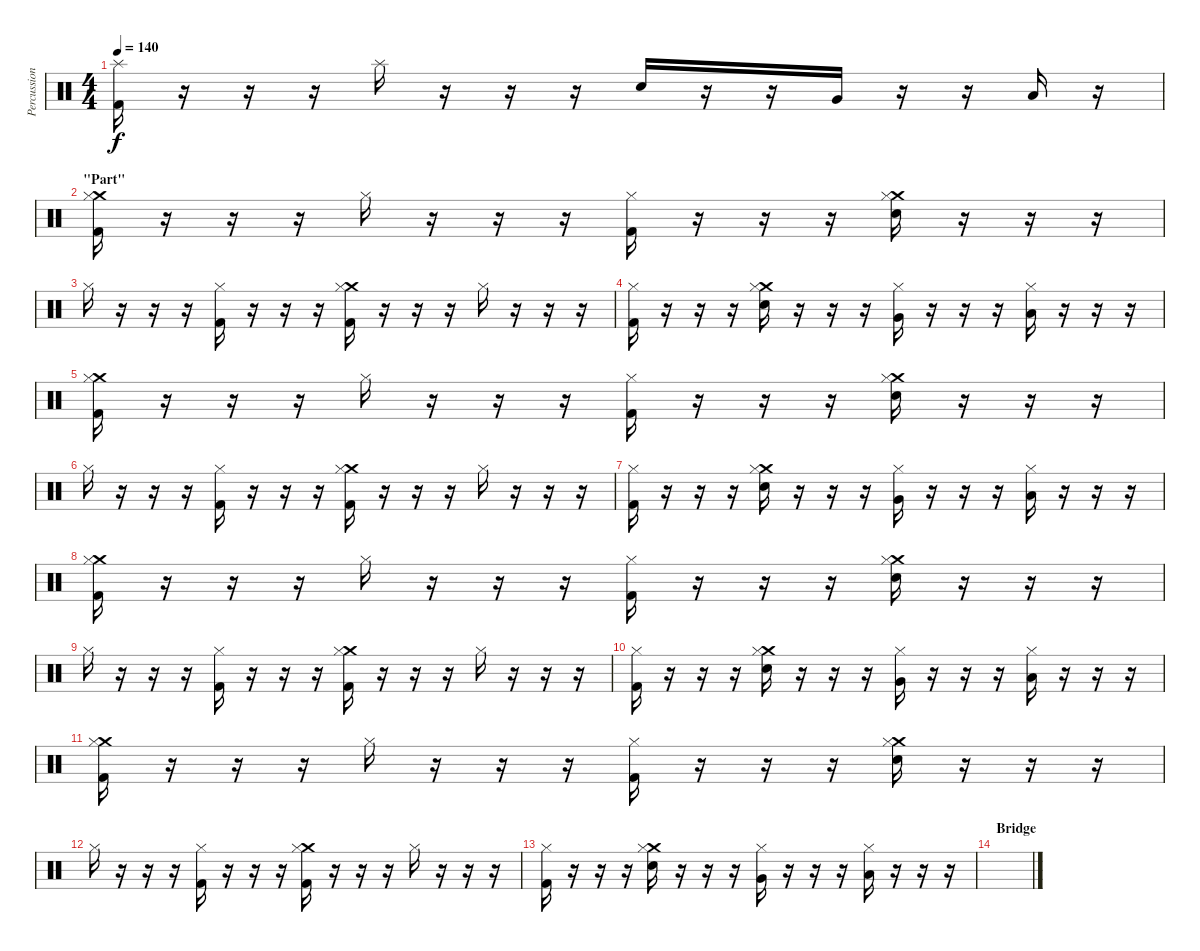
\track ("Percussion" "Percussion") {instrument percussion}
\staff {score}
\articulation defaults
\ts (4 4)
\tempo 140
\clef neutral
\ks c
("Kick (hit) 2" "Splash (hit)").16{dy f} r.16 r.16 r.16 "Splash (hit)".16 r.16 r.16 r.16 "Snare (hit) 2".16 r.16 r.16 "Very Low Tom (hit)".16 r.16 r.16 "Low Floor Tom (hit)".16 r.16 |
\section ("" "\"Part\"")
("Kick (hit) 2" "Crash medium (hit)" "Hi-Hat (closed)").16 r.16 r.16 r.16 "Hi-Hat (closed)".16 r.16 r.16 r.16 ("Kick (hit) 2" "Hi-Hat (closed)").16 r.16 r.16 r.16 ("Snare (hit) 2" "Crash medium (hit)" "Hi-Hat (closed)").16 r.16 r.16 r.16 |
"Hi-Hat (closed)".16 r.16 r.16 r.16 ("Kick (hit) 2" "Hi-Hat (closed)").16 r.16 r.16 r.16 ("Kick (hit) 2" "Crash medium (hit)" "Hi-Hat (closed)").16 r.16 r.16 r.16 "Hi-Hat (closed)".16 r.16 r.16 r.16 |
("Kick (hit) 2" "Hi-Hat (closed)").16 r.16 r.16 r.16 ("Snare (hit) 2" "Crash medium (hit)" "Hi-Hat (closed)").16 r.16 r.16 r.16 ("Very Low Tom (hit)" "Hi-Hat (closed)").16 r.16 r.16 r.16 ("Low Floor Tom (hit)" "Hi-Hat (closed)").16 r.16 r.16 r.16 |
("Kick (hit) 2" "Crash medium (hit)" "Hi-Hat (closed)").16 r.16 r.16 r.16 "Hi-Hat (closed)".16 r.16 r.16 r.16 ("Kick (hit) 2" "Hi-Hat (closed)").16 r.16 r.16 r.16 ("Snare (hit) 2" "Crash medium (hit)" "Hi-Hat (closed)").16 r.16 r.16 r.16 |
"Hi-Hat (closed)".16 r.16 r.16 r.16 ("Kick (hit) 2" "Hi-Hat (closed)").16 r.16 r.16 r.16 ("Kick (hit) 2" "Crash medium (hit)" "Hi-Hat (closed)").16 r.16 r.16 r.16 "Hi-Hat (closed)".16 r.16 r.16 r.16 |
("Kick (hit) 2" "Hi-Hat (closed)").16 r.16 r.16 r.16 ("Snare (hit) 2" "Crash medium (hit)" "Hi-Hat (closed)").16 r.16 r.16 r.16 ("Very Low Tom (hit)" "Hi-Hat (closed)").16 r.16 r.16 r.16 ("Low Floor Tom (hit)" "Hi-Hat (closed)").16 r.16 r.16 r.16 |
("Kick (hit) 2" "Crash medium (hit)" "Hi-Hat (closed)").16 r.16 r.16 r.16 "Hi-Hat (closed)".16 r.16 r.16 r.16 ("Kick (hit) 2" "Hi-Hat (closed)").16 r.16 r.16 r.16 ("Snare (hit) 2" "Crash medium (hit)" "Hi-Hat (closed)").16 r.16 r.16 r.16 |
"Hi-Hat (closed)".16 r.16 r.16 r.16 ("Kick (hit) 2" "Hi-Hat (closed)").16 r.16 r.16 r.16 ("Kick (hit) 2" "Crash medium (hit)" "Hi-Hat (closed)").16 r.16 r.16 r.16 "Hi-Hat (closed)".16 r.16 r.16 r.16 |
("Kick (hit) 2" "Hi-Hat (closed)").16 r.16 r.16 r.16 ("Snare (hit) 2" "Crash medium (hit)" "Hi-Hat (closed)").16 r.16 r.16 r.16 ("Very Low Tom (hit)" "Hi-Hat (closed)").16 r.16 r.16 r.16 ("Low Floor Tom (hit)" "Hi-Hat (closed)").16 r.16 r.16 r.16 |
("Kick (hit) 2" "Crash medium (hit)" "Hi-Hat (closed)").16 r.16 r.16 r.16 "Hi-Hat (closed)".16 r.16 r.16 r.16 ("Kick (hit) 2" "Hi-Hat (closed)").16 r.16 r.16 r.16 ("Snare (hit) 2" "Crash medium (hit)" "Hi-Hat (closed)").16 r.16 r.16 r.16 |
"Hi-Hat (closed)".16 r.16 r.16 r.16 ("Kick (hit) 2" "Hi-Hat (closed)").16 r.16 r.16 r.16 ("Kick (hit) 2" "Crash medium (hit)" "Hi-Hat (closed)").16 r.16 r.16 r.16 "Hi-Hat (closed)".16 r.16 r.16 r.16 |
("Kick (hit) 2" "Hi-Hat (closed)").16 r.16 r.16 r.16 ("Snare (hit) 2" "Crash medium (hit)" "Hi-Hat (closed)").16 r.16 r.16 r.16 ("Very Low Tom (hit)" "Hi-Hat (closed)").16 r.16 r.16 r.16 ("Low Floor Tom (hit)" "Hi-Hat (closed)").16 r.16 r.16 r.16 |
\section ("" "Bridge")
